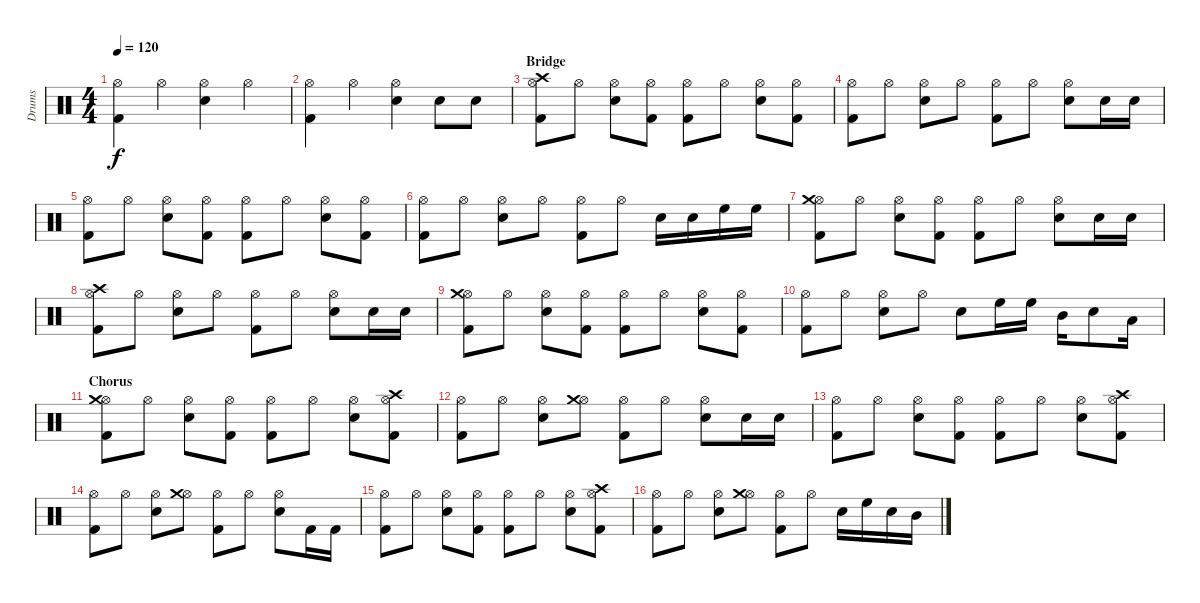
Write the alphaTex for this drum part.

\track ("Drums" "Drums") {instrument percussion}
\staff {score}
\articulation defaults
\ts (4 4)
\tempo 120
\clef neutral
\ks c
("Hi-Hat (open)" "Kick (hit) 2").4{dy f} "Hi-Hat (open)".4 ("Hi-Hat (open)" "Snare (hit) 2").4 "Hi-Hat (open)".4 |
("Hi-Hat (open)" "Kick (hit) 2").4 "Hi-Hat (open)".4 ("Hi-Hat (open)" "Snare (hit) 2").4 "Snare (hit) 2".8 "Snare (hit) 2".8 |
\section ("" "Bridge")
("Hi-Hat (open)" "Crash high (hit)" "Kick (hit) 2").8 "Hi-Hat (open)".8 ("Hi-Hat (open)" "Electric Snare (hit)").8 ("Hi-Hat (open)" "Kick (hit) 2").8 ("Hi-Hat (open)" "Kick (hit) 2").8 "Hi-Hat (open)".8 ("Hi-Hat (open)" "Electric Snare (hit)").8 ("Hi-Hat (open)" "Kick (hit) 2").8 |
("Hi-Hat (open)" "Kick (hit) 2").8 "Hi-Hat (open)".8 ("Hi-Hat (open)" "Electric Snare (hit)").8 "Hi-Hat (open)".8 ("Hi-Hat (open)" "Kick (hit) 2").8 "Hi-Hat (open)".8 ("Hi-Hat (open)" "Electric Snare (hit)").8 "Snare (hit) 2".16 "Snare (hit) 2".16 |
("Hi-Hat (open)" "Kick (hit) 2").8 "Hi-Hat (open)".8 ("Hi-Hat (open)" "Electric Snare (hit)").8 ("Hi-Hat (open)" "Kick (hit) 2").8 ("Hi-Hat (open)" "Kick (hit) 2").8 "Hi-Hat (open)".8 ("Hi-Hat (open)" "Electric Snare (hit)").8 ("Hi-Hat (open)" "Kick (hit) 2").8 |
("Hi-Hat (open)" "Kick (hit) 2").8 "Hi-Hat (open)".8 ("Hi-Hat (open)" "Electric Snare (hit)").8 "Hi-Hat (open)".8 ("Hi-Hat (open)" "Kick (hit) 2").8 "Hi-Hat (open)".8 "Snare (hit) 2".16 "Snare (hit) 2".16 "High Floor Tom (hit)".16 "High Floor Tom (hit)".16 |
("Hi-Hat (open)" "Crash medium (hit)" "Kick (hit) 2").8 "Hi-Hat (open)".8 ("Hi-Hat (open)" "Electric Snare (hit)").8 ("Hi-Hat (open)" "Kick (hit) 2").8 ("Hi-Hat (open)" "Kick (hit) 2").8 "Hi-Hat (open)".8 ("Hi-Hat (open)" "Electric Snare (hit)").8 "Snare (hit) 2".16 "Snare (hit) 2".16 |
("Hi-Hat (open)" "Crash high (hit)" "Kick (hit) 2").8 "Hi-Hat (open)".8 ("Hi-Hat (open)" "Electric Snare (hit)").8 "Hi-Hat (open)".8 ("Hi-Hat (open)" "Kick (hit) 2").8 "Hi-Hat (open)".8 ("Hi-Hat (open)" "Electric Snare (hit)").8 "Snare (hit) 2".16 "Snare (hit) 2".16 |
("Hi-Hat (open)" "Crash medium (hit)" "Kick (hit) 2").8 "Hi-Hat (open)".8 ("Hi-Hat (open)" "Electric Snare (hit)").8 ("Hi-Hat (open)" "Kick (hit) 2").8 ("Hi-Hat (open)" "Kick (hit) 2").8 "Hi-Hat (open)".8 ("Hi-Hat (open)" "Electric Snare (hit)").8 ("Hi-Hat (open)" "Kick (hit) 2").8 |
("Hi-Hat (open)" "Kick (hit) 2").8 "Hi-Hat (open)".8 ("Hi-Hat (open)" "Electric Snare (hit)").8 "Hi-Hat (open)".8 "Snare (hit) 2".8 "High Floor Tom (hit)".16 "High Floor Tom (hit)".16 "Mid Tom (hit)".16 "Snare (hit) 2".8 "Low Floor Tom (hit)".16 |
\section ("" "Chorus")
("Hi-Hat (open)" "Crash medium (hit)" "Kick (hit) 2").8 "Hi-Hat (open)".8 ("Hi-Hat (open)" "Electric Snare (hit)").8 ("Hi-Hat (open)" "Kick (hit) 2").8 ("Hi-Hat (open)" "Kick (hit) 2").8 "Hi-Hat (open)".8 ("Hi-Hat (open)" "Electric Snare (hit)").8 ("Hi-Hat (open)" "Crash high (hit)" "Kick (hit) 2").8 |
("Hi-Hat (open)" "Kick (hit) 2").8 "Hi-Hat (open)".8 ("Hi-Hat (open)" "Electric Snare (hit)").8 ("Hi-Hat (open)" "Crash medium (hit)").8 ("Hi-Hat (open)" "Kick (hit) 2").8 "Hi-Hat (open)".8 ("Hi-Hat (open)" "Electric Snare (hit)").8 "Snare (hit) 2".16 "Snare (hit) 2".16 |
("Hi-Hat (open)" "Kick (hit) 2").8 "Hi-Hat (open)".8 ("Hi-Hat (open)" "Electric Snare (hit)").8 ("Hi-Hat (open)" "Kick (hit) 2").8 ("Hi-Hat (open)" "Kick (hit) 2").8 "Hi-Hat (open)".8 ("Hi-Hat (open)" "Electric Snare (hit)").8 ("Hi-Hat (open)" "Crash high (hit)" "Kick (hit) 2").8 |
("Hi-Hat (open)" "Kick (hit) 2").8 "Hi-Hat (open)".8 ("Hi-Hat (open)" "Electric Snare (hit)").8 ("Hi-Hat (open)" "Crash medium (hit)").8 ("Hi-Hat (open)" "Kick (hit) 2").8 "Hi-Hat (open)".8 ("Hi-Hat (open)" "Electric Snare (hit)").8 "Kick (hit) 2".16 "Kick (hit) 2".16 |
("Hi-Hat (open)" "Kick (hit) 2").8 "Hi-Hat (open)".8 ("Hi-Hat (open)" "Electric Snare (hit)").8 ("Hi-Hat (open)" "Kick (hit) 2").8 ("Hi-Hat (open)" "Kick (hit) 2").8 "Hi-Hat (open)".8 ("Hi-Hat (open)" "Electric Snare (hit)").8 ("Hi-Hat (open)" "Crash high (hit)" "Kick (hit) 2").8 |
("Hi-Hat (open)" "Kick (hit) 2").8 "Hi-Hat (open)".8 ("Hi-Hat (open)" "Electric Snare (hit)").8 ("Hi-Hat (open)" "Crash medium (hit)").8 ("Hi-Hat (open)" "Kick (hit) 2").8 "Hi-Hat (open)".8 "Snare (hit) 2".16 "High Floor Tom (hit)".16 "Snare (hit) 2".16 "Mid Tom (hit)".16
